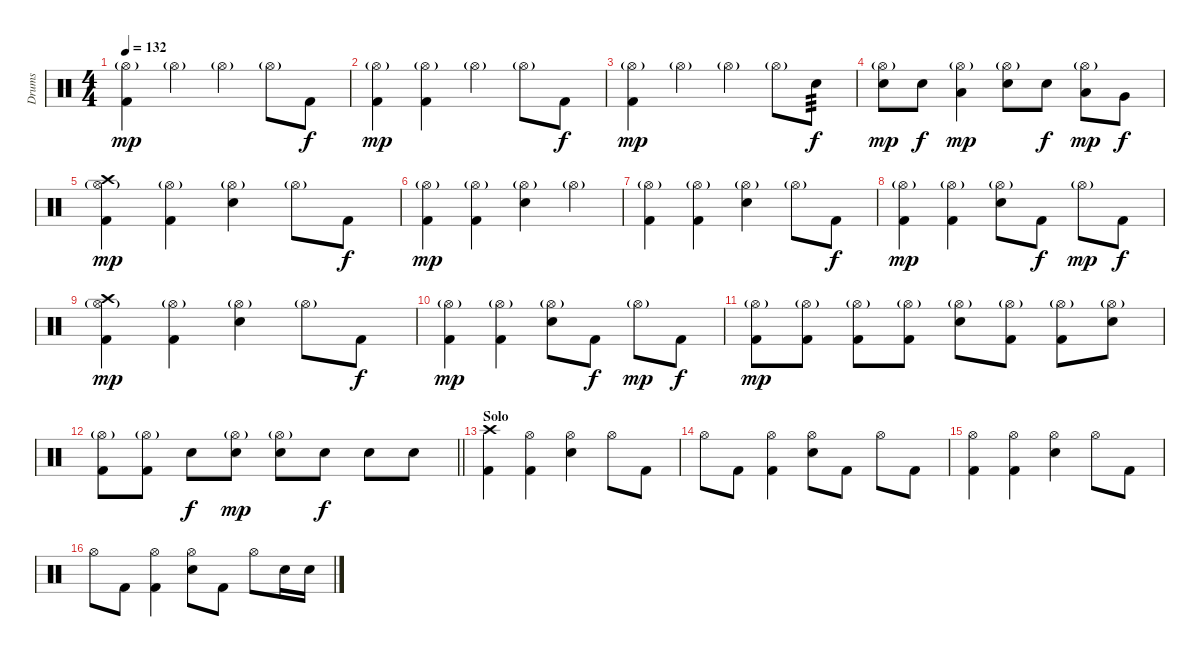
\track ("Drums" "Drums") {instrument percussion}
\staff {score}
\articulation defaults
\ts (4 4)
\tempo 132
\clef neutral
\ks c
("Hi-Hat (open)"{g} "Kick (hit) 2").4{dy mp} "Hi-Hat (open)"{g}.4 "Hi-Hat (open)"{g}.4 "Hi-Hat (open)"{g}.8 "Kick (hit) 2".8{dy f} |
("Hi-Hat (open)"{g} "Kick (hit) 2").4{dy mp} ("Hi-Hat (open)"{g} "Kick (hit) 2").4 "Hi-Hat (open)"{g}.4 "Hi-Hat (open)"{g}.8 "Kick (hit) 2".8{dy f} |
("Hi-Hat (open)"{g} "Kick (hit) 2").4{dy mp} "Hi-Hat (open)"{g}.4 "Hi-Hat (open)"{g}.4 "Hi-Hat (open)"{g}.8 "Electric Snare (hit)".8{tp 3 dy f} |
("Hi-Hat (open)"{g} "Electric Snare (hit)").8{dy mp} "Electric Snare (hit)".8{dy f} ("Hi-Hat (open)"{g} "Low Tom (hit)").4{dy mp} ("Hi-Hat (open)"{g} "Electric Snare (hit)").8 "Electric Snare (hit)".8{dy f} ("Hi-Hat (open)"{g} "Low Tom (hit)").8{dy mp} "Very Low Tom (hit)".8{dy f} |
("Crash high (hit)" "Hi-Hat (open)"{g} "Kick (hit) 2").4{dy mp} ("Hi-Hat (open)"{g} "Kick (hit) 2").4 ("Hi-Hat (open)"{g} "Electric Snare (hit)").4 "Hi-Hat (open)"{g}.8 "Kick (hit) 2".8{dy f} |
("Hi-Hat (open)"{g} "Kick (hit) 2").4{dy mp} ("Hi-Hat (open)"{g} "Kick (hit) 2").4 ("Hi-Hat (open)"{g} "Electric Snare (hit)").4 "Hi-Hat (open)"{g}.4 |
("Hi-Hat (open)"{g} "Kick (hit) 2").4 ("Hi-Hat (open)"{g} "Kick (hit) 2").4 ("Hi-Hat (open)"{g} "Electric Snare (hit)").4 "Hi-Hat (open)"{g}.8 "Kick (hit) 2".8{dy f} |
("Hi-Hat (open)"{g} "Kick (hit) 2").4{dy mp} ("Hi-Hat (open)"{g} "Kick (hit) 2").4 ("Hi-Hat (open)"{g} "Electric Snare (hit)").8 "Kick (hit) 2".8{dy f} "Hi-Hat (open)"{g}.8{dy mp} "Kick (hit) 2".8{dy f} |
("Crash high (hit)" "Hi-Hat (open)"{g} "Kick (hit) 2").4{dy mp} ("Hi-Hat (open)"{g} "Kick (hit) 2").4 ("Hi-Hat (open)"{g} "Electric Snare (hit)").4 "Hi-Hat (open)"{g}.8 "Kick (hit) 2".8{dy f} |
("Hi-Hat (open)"{g} "Kick (hit) 2").4{dy mp} ("Hi-Hat (open)"{g} "Kick (hit) 2").4 ("Hi-Hat (open)"{g} "Electric Snare (hit)").8 "Kick (hit) 2".8{dy f} "Hi-Hat (open)"{g}.8{dy mp} "Kick (hit) 2".8{dy f} |
("Hi-Hat (open)"{g} "Kick (hit) 2").8{dy mp} ("Hi-Hat (open)"{g} "Kick (hit) 2").8 ("Hi-Hat (open)"{g} "Kick (hit) 2").8 ("Hi-Hat (open)"{g} "Kick (hit) 2").8 ("Hi-Hat (open)"{g} "Electric Snare (hit)").8 ("Hi-Hat (open)"{g} "Kick (hit) 2").8 ("Hi-Hat (open)"{g} "Kick (hit) 2").8 ("Hi-Hat (open)"{g} "Electric Snare (hit)").8 |
\barLineRight lightlight
("Hi-Hat (open)"{g} "Kick (hit) 2").8 ("Hi-Hat (open)"{g} "Kick (hit) 2").8 "Electric Snare (hit)".8{dy f} ("Hi-Hat (open)"{g} "Electric Snare (hit)").8{dy mp} ("Hi-Hat (open)"{g} "Electric Snare (hit)").8 "Electric Snare (hit)".8{dy f} "Electric Snare (hit)".8 "Electric Snare (hit)".8 |
\section ("" "Solo")
("Crash high (hit)" "Kick (hit) 2").4 ("Hi-Hat (open)" "Kick (hit) 2").4 ("Hi-Hat (open)" "Electric Snare (hit)").4 "Hi-Hat (open)".8 "Kick (hit) 2".8 |
"Hi-Hat (open)".8 "Kick (hit) 2".8 ("Hi-Hat (open)" "Kick (hit) 2").4 ("Hi-Hat (open)" "Electric Snare (hit)").8 "Kick (hit) 2".8 "Hi-Hat (open)".8 "Kick (hit) 2".8 |
("Hi-Hat (open)" "Kick (hit) 2").4 ("Hi-Hat (open)" "Kick (hit) 2").4 ("Hi-Hat (open)" "Electric Snare (hit)").4 "Hi-Hat (open)".8 "Kick (hit) 2".8 |
"Hi-Hat (open)".8 "Kick (hit) 2".8 ("Hi-Hat (open)" "Kick (hit) 2").4 ("Hi-Hat (open)" "Electric Snare (hit)").8 "Kick (hit) 2".8 "Hi-Hat (open)".8 "Electric Snare (hit)".16 "Electric Snare (hit)".16
